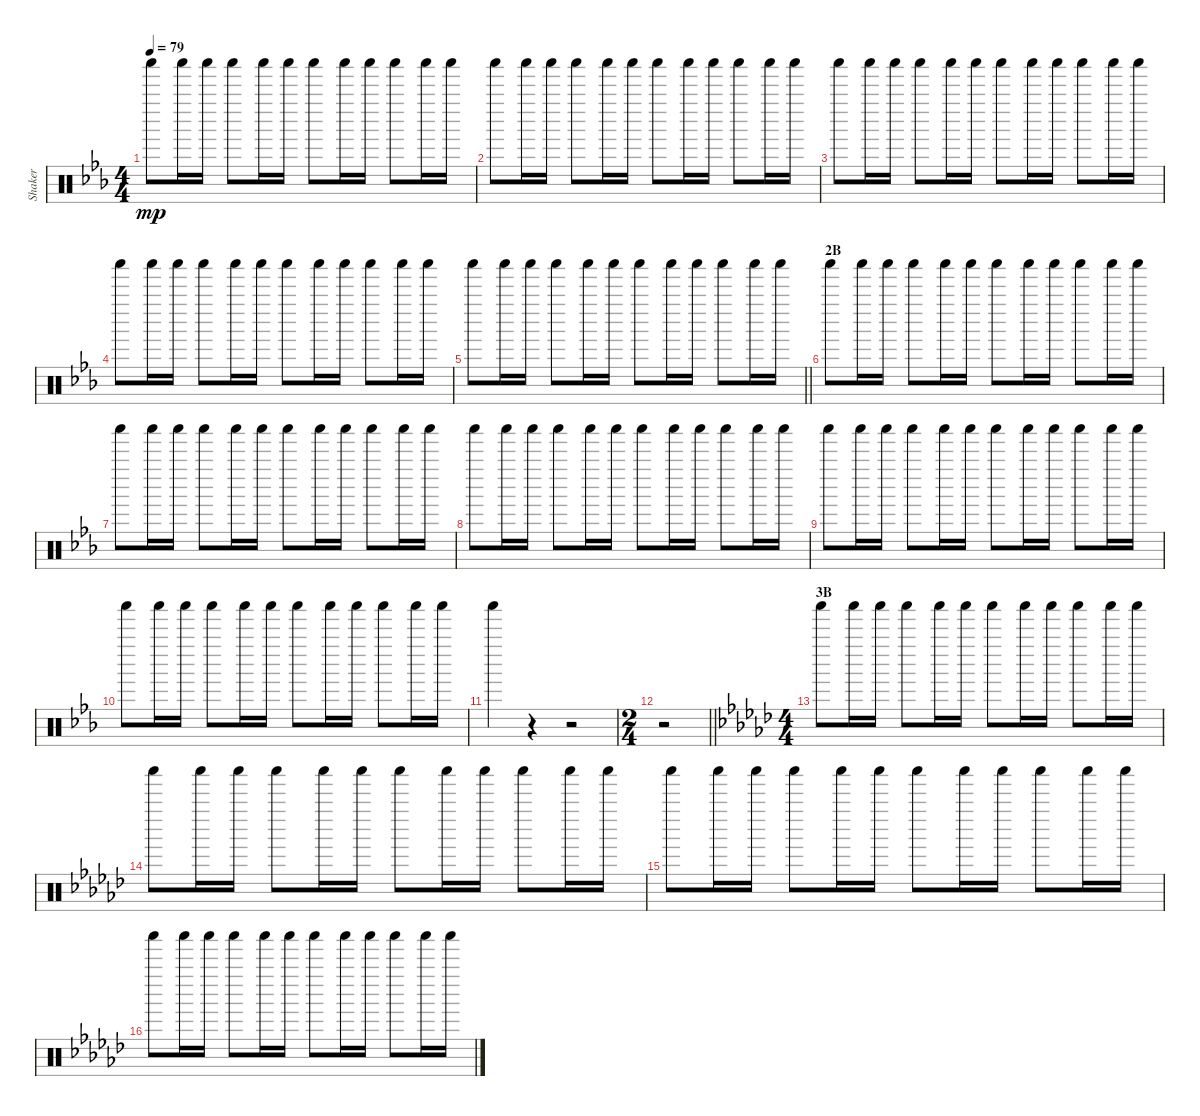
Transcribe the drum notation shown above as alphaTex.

\track ("Shaker" "Shaker") {instrument percussion}
\staff {score}
\articulation defaults
\ts (4 4)
\tempo 79
\clef neutral
\ks eb "Shaker (hit)".8{dy mp} "Shaker (hit)".16 "Shaker (hit)".16 "Shaker (hit)".8 "Shaker (hit)".16 "Shaker (hit)".16 "Shaker (hit)".8 "Shaker (hit)".16 "Shaker (hit)".16 "Shaker (hit)".8 "Shaker (hit)".16 "Shaker (hit)".16
|
"Shaker (hit)".8 "Shaker (hit)".16 "Shaker (hit)".16 "Shaker (hit)".8 "Shaker (hit)".16 "Shaker (hit)".16 "Shaker (hit)".8 "Shaker (hit)".16 "Shaker (hit)".16 "Shaker (hit)".8 "Shaker (hit)".16 "Shaker (hit)".16 |
"Shaker (hit)".8 "Shaker (hit)".16 "Shaker (hit)".16 "Shaker (hit)".8 "Shaker (hit)".16 "Shaker (hit)".16 "Shaker (hit)".8 "Shaker (hit)".16 "Shaker (hit)".16 "Shaker (hit)".8 "Shaker (hit)".16 "Shaker (hit)".16 |
"Shaker (hit)".8 "Shaker (hit)".16 "Shaker (hit)".16 "Shaker (hit)".8 "Shaker (hit)".16 "Shaker (hit)".16 "Shaker (hit)".8 "Shaker (hit)".16 "Shaker (hit)".16 "Shaker (hit)".8 "Shaker (hit)".16 "Shaker (hit)".16 |
\barLineRight lightlight "Shaker (hit)".8 "Shaker (hit)".16 "Shaker (hit)".16 "Shaker (hit)".8 "Shaker (hit)".16 "Shaker (hit)".16 "Shaker (hit)".8 "Shaker (hit)".16 "Shaker (hit)".16 "Shaker (hit)".8 "Shaker (hit)".16 "Shaker (hit)".16
|
\section ("" "2B")
"Shaker (hit)".8 "Shaker (hit)".16 "Shaker (hit)".16 "Shaker (hit)".8 "Shaker (hit)".16 "Shaker (hit)".16 "Shaker (hit)".8 "Shaker (hit)".16 "Shaker (hit)".16 "Shaker (hit)".8 "Shaker (hit)".16 "Shaker (hit)".16 |
"Shaker (hit)".8 "Shaker (hit)".16 "Shaker (hit)".16 "Shaker (hit)".8 "Shaker (hit)".16 "Shaker (hit)".16 "Shaker (hit)".8 "Shaker (hit)".16 "Shaker (hit)".16 "Shaker (hit)".8 "Shaker (hit)".16 "Shaker (hit)".16 |
"Shaker (hit)".8 "Shaker (hit)".16 "Shaker (hit)".16 "Shaker (hit)".8 "Shaker (hit)".16 "Shaker (hit)".16 "Shaker (hit)".8 "Shaker (hit)".16 "Shaker (hit)".16 "Shaker (hit)".8 "Shaker (hit)".16 "Shaker (hit)".16 |
"Shaker (hit)".8 "Shaker (hit)".16 "Shaker (hit)".16 "Shaker (hit)".8 "Shaker (hit)".16 "Shaker (hit)".16 "Shaker (hit)".8 "Shaker (hit)".16 "Shaker (hit)".16 "Shaker (hit)".8 "Shaker (hit)".16 "Shaker (hit)".16 |
"Shaker (hit)".8 "Shaker (hit)".16 "Shaker (hit)".16 "Shaker (hit)".8 "Shaker (hit)".16 "Shaker (hit)".16 "Shaker (hit)".8 "Shaker (hit)".16 "Shaker (hit)".16 "Shaker (hit)".8 "Shaker (hit)".16 "Shaker (hit)".16 |
"Shaker (hit)".4 r.4 r.2 |
\ts (2 4)
\barLineRight lightlight
r.2 |
\ts (4 4)
\section ("" "3B")
\ks gb "Shaker (hit)".8 "Shaker (hit)".16 "Shaker (hit)".16 "Shaker (hit)".8 "Shaker (hit)".16 "Shaker (hit)".16 "Shaker (hit)".8 "Shaker (hit)".16 "Shaker (hit)".16 "Shaker (hit)".8 "Shaker (hit)".16 "Shaker (hit)".16
|
"Shaker (hit)".8 "Shaker (hit)".16 "Shaker (hit)".16 "Shaker (hit)".8 "Shaker (hit)".16 "Shaker (hit)".16 "Shaker (hit)".8 "Shaker (hit)".16 "Shaker (hit)".16 "Shaker (hit)".8 "Shaker (hit)".16 "Shaker (hit)".16 |
"Shaker (hit)".8 "Shaker (hit)".16 "Shaker (hit)".16 "Shaker (hit)".8 "Shaker (hit)".16 "Shaker (hit)".16 "Shaker (hit)".8 "Shaker (hit)".16 "Shaker (hit)".16 "Shaker (hit)".8 "Shaker (hit)".16 "Shaker (hit)".16 |
"Shaker (hit)".8 "Shaker (hit)".16 "Shaker (hit)".16 "Shaker (hit)".8 "Shaker (hit)".16 "Shaker (hit)".16 "Shaker (hit)".8 "Shaker (hit)".16 "Shaker (hit)".16 "Shaker (hit)".8 "Shaker (hit)".16 "Shaker (hit)".16
